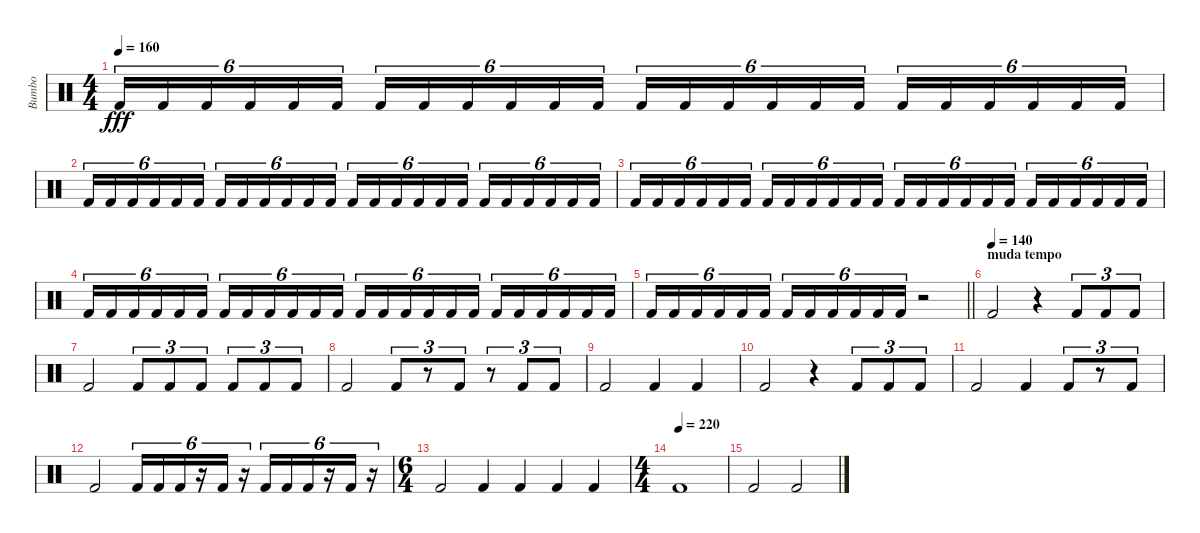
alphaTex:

\track ("Bumbo" "Bumbo") {instrument percussion}
\staff {score}
\articulation defaults
\ts (4 4)
\tempo 160
\clef neutral
\ks c "Kick (hit) 2".16{tu (6 4) dy fff} "Kick (hit) 2".16{tu (6 4)} "Kick (hit) 2".16{tu (6 4)} "Kick (hit) 2".16{tu (6 4)} "Kick (hit) 2".16{tu (6 4)} "Kick (hit) 2".16{tu (6 4)} "Kick (hit) 2".16{tu (6 4)} "Kick (hit) 2".16{tu (6 4)} "Kick (hit) 2".16{tu (6 4)} "Kick (hit) 2".16{tu (6 4)} "Kick (hit) 2".16{tu (6 4)} "Kick (hit) 2".16{tu (6 4)} "Kick (hit) 2".16{tu (6 4)} "Kick (hit) 2".16{tu (6 4)} "Kick (hit) 2".16{tu (6 4)} "Kick (hit) 2".16{tu (6 4)} "Kick (hit) 2".16{tu (6 4)} "Kick (hit) 2".16{tu (6 4)} "Kick (hit) 2".16{tu (6 4)} "Kick (hit) 2".16{tu (6 4)} "Kick (hit) 2".16{tu (6 4)} "Kick (hit) 2".16{tu (6 4)} "Kick (hit) 2".16{tu (6 4)} "Kick (hit) 2".16{tu (6 4)}
|
"Kick (hit) 2".16{tu (6 4)} "Kick (hit) 2".16{tu (6 4)} "Kick (hit) 2".16{tu (6 4)} "Kick (hit) 2".16{tu (6 4)} "Kick (hit) 2".16{tu (6 4)} "Kick (hit) 2".16{tu (6 4)} "Kick (hit) 2".16{tu (6 4)} "Kick (hit) 2".16{tu (6 4)} "Kick (hit) 2".16{tu (6 4)} "Kick (hit) 2".16{tu (6 4)} "Kick (hit) 2".16{tu (6 4)} "Kick (hit) 2".16{tu (6 4)} "Kick (hit) 2".16{tu (6 4)} "Kick (hit) 2".16{tu (6 4)} "Kick (hit) 2".16{tu (6 4)} "Kick (hit) 2".16{tu (6 4)} "Kick (hit) 2".16{tu (6 4)} "Kick (hit) 2".16{tu (6 4)} "Kick (hit) 2".16{tu (6 4)} "Kick (hit) 2".16{tu (6 4)} "Kick (hit) 2".16{tu (6 4)} "Kick (hit) 2".16{tu (6 4)} "Kick (hit) 2".16{tu (6 4)} "Kick (hit) 2".16{tu (6 4)} |
"Kick (hit) 2".16{tu (6 4)} "Kick (hit) 2".16{tu (6 4)} "Kick (hit) 2".16{tu (6 4)} "Kick (hit) 2".16{tu (6 4)} "Kick (hit) 2".16{tu (6 4)} "Kick (hit) 2".16{tu (6 4)} "Kick (hit) 2".16{tu (6 4)} "Kick (hit) 2".16{tu (6 4)} "Kick (hit) 2".16{tu (6 4)} "Kick (hit) 2".16{tu (6 4)} "Kick (hit) 2".16{tu (6 4)} "Kick (hit) 2".16{tu (6 4)} "Kick (hit) 2".16{tu (6 4)} "Kick (hit) 2".16{tu (6 4)} "Kick (hit) 2".16{tu (6 4)} "Kick (hit) 2".16{tu (6 4)} "Kick (hit) 2".16{tu (6 4)} "Kick (hit) 2".16{tu (6 4)} "Kick (hit) 2".16{tu (6 4)} "Kick (hit) 2".16{tu (6 4)} "Kick (hit) 2".16{tu (6 4)} "Kick (hit) 2".16{tu (6 4)} "Kick (hit) 2".16{tu (6 4)} "Kick (hit) 2".16{tu (6 4)} |
"Kick (hit) 2".16{tu (6 4)} "Kick (hit) 2".16{tu (6 4)} "Kick (hit) 2".16{tu (6 4)} "Kick (hit) 2".16{tu (6 4)} "Kick (hit) 2".16{tu (6 4)} "Kick (hit) 2".16{tu (6 4)} "Kick (hit) 2".16{tu (6 4)} "Kick (hit) 2".16{tu (6 4)} "Kick (hit) 2".16{tu (6 4)} "Kick (hit) 2".16{tu (6 4)} "Kick (hit) 2".16{tu (6 4)} "Kick (hit) 2".16{tu (6 4)} "Kick (hit) 2".16{tu (6 4)} "Kick (hit) 2".16{tu (6 4)} "Kick (hit) 2".16{tu (6 4)} "Kick (hit) 2".16{tu (6 4)} "Kick (hit) 2".16{tu (6 4)} "Kick (hit) 2".16{tu (6 4)} "Kick (hit) 2".16{tu (6 4)} "Kick (hit) 2".16{tu (6 4)} "Kick (hit) 2".16{tu (6 4)} "Kick (hit) 2".16{tu (6 4)} "Kick (hit) 2".16{tu (6 4)} "Kick (hit) 2".16{tu (6 4)} |
\barLineRight lightlight "Kick (hit) 2".16{tu (6 4)} "Kick (hit) 2".16{tu (6 4)} "Kick (hit) 2".16{tu (6 4)} "Kick (hit) 2".16{tu (6 4)} "Kick (hit) 2".16{tu (6 4)} "Kick (hit) 2".16{tu (6 4)} "Kick (hit) 2".16{tu (6 4)} "Kick (hit) 2".16{tu (6 4)} "Kick (hit) 2".16{tu (6 4)} "Kick (hit) 2".16{tu (6 4)} "Kick (hit) 2".16{tu (6 4)} "Kick (hit) 2".16{tu (6 4)}
r.2 |
\section ("" "muda tempo")
\tempo (140)
"Kick (hit) 2".2 r.4 "Kick (hit) 2".8{tu (3 2)} "Kick (hit) 2".8{tu (3 2)} "Kick (hit) 2".8{tu (3 2)} |
"Kick (hit) 2".2 "Kick (hit) 2".8{tu (3 2)} "Kick (hit) 2".8{tu (3 2)} "Kick (hit) 2".8{tu (3 2)} "Kick (hit) 2".8{tu (3 2)} "Kick (hit) 2".8{tu (3 2)} "Kick (hit) 2".8{tu (3 2)} |
"Kick (hit) 2".2 "Kick (hit) 2".8{tu (3 2)} r.8{tu (3 2)} "Kick (hit) 2".8{tu (3 2)} r.8{tu (3 2)} "Kick (hit) 2".8{tu (3 2)} "Kick (hit) 2".8{tu (3 2)} |
"Kick (hit) 2".2 "Kick (hit) 2".4 "Kick (hit) 2".4 |
"Kick (hit) 2".2 r.4 "Kick (hit) 2".8{tu (3 2)} "Kick (hit) 2".8{tu (3 2)} "Kick (hit) 2".8{tu (3 2)} |
"Kick (hit) 2".2 "Kick (hit) 2".4 "Kick (hit) 2".8{tu (3 2)} r.8{tu (3 2)} "Kick (hit) 2".8{tu (3 2)} |
"Kick (hit) 2".2 "Kick (hit) 2".16{tu (6 4)} "Kick (hit) 2".16{tu (6 4)} "Kick (hit) 2".16{tu (6 4)} r.16{tu (6 4)} "Kick (hit) 2".16{tu (6 4)} r.16{tu (6 4)} "Kick (hit) 2".16{tu (6 4)} "Kick (hit) 2".16{tu (6 4)} "Kick (hit) 2".16{tu (6 4)} r.16{tu (6 4)} "Kick (hit) 2".16{tu (6 4)} r.16{tu (6 4)} |
\ts (6 4)
"Kick (hit) 2".2 "Kick (hit) 2".4 "Kick (hit) 2".4 "Kick (hit) 2".4 "Kick (hit) 2".4 |
\ts (4 4)
\tempo (220)
"Kick (hit) 2".1 |
"Kick (hit) 2".2 "Kick (hit) 2".2
